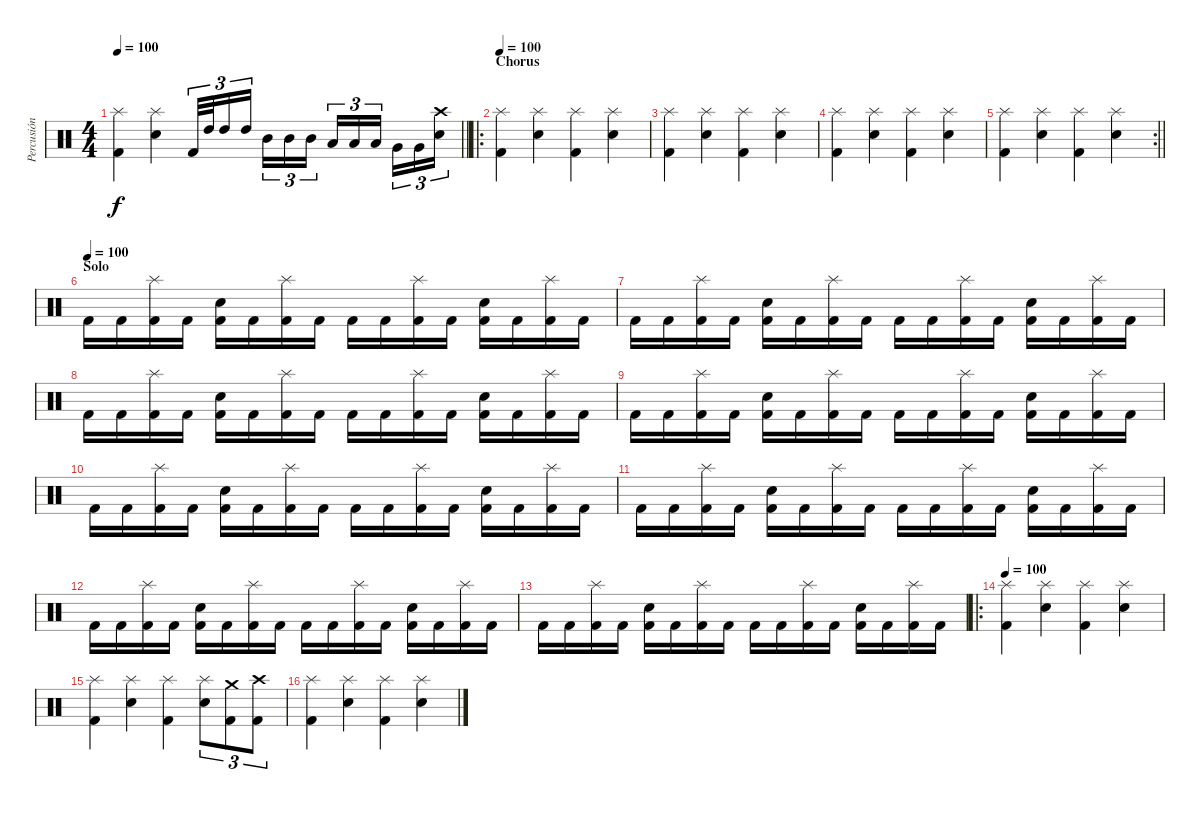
\track ("Percusión" "Percusión") {instrument percussion}
\staff {score}
\articulation defaults
\ts (4 4)
\tempo 100
\clef neutral
\barLineRight lightlight
\ks c
("Splash (hit)" "Kick (hit) 2").4{dy f} ("Splash (hit)" "Snare (hit) 2").4 "Kick (hit) 2".32{tu (3 2)} "High Tom (hit)".32{tu (3 2)} "High Tom (hit)".16{tu (3 2)} "High Tom (hit)".16{tu (3 2) beam splitsecondary} "Mid Tom (hit)".16{tu (3 2)} "Mid Tom (hit)".16{tu (3 2)} "Mid Tom (hit)".16{tu (3 2)} "Low Tom (hit)".16{tu (3 2)} "Low Tom (hit)".16{tu (3 2)} "Low Tom (hit)".16{tu (3 2) beam splitsecondary} "Very Low Tom (hit)".16{tu (3 2)} "Very Low Tom (hit)".16{tu (3 2)} ("Crash high (hit)" "Snare (hit) 2").16{tu (3 2)} |
\ro
\section ("" "Chorus")
\tempo 100
("Splash (hit)" "Kick (hit) 2").4 ("Splash (hit)" "Snare (hit) 2").4 ("Splash (hit)" "Kick (hit) 2").4 ("Splash (hit)" "Snare (hit) 2").4 |
("Splash (hit)" "Kick (hit) 2").4 ("Splash (hit)" "Snare (hit) 2").4 ("Splash (hit)" "Kick (hit) 2").4 ("Splash (hit)" "Snare (hit) 2").4 |
("Splash (hit)" "Kick (hit) 2").4 ("Splash (hit)" "Snare (hit) 2").4 ("Splash (hit)" "Kick (hit) 2").4 ("Splash (hit)" "Snare (hit) 2").4 |
\rc 2
\barLineRight lightlight
("Splash (hit)" "Kick (hit) 2").4 ("Splash (hit)" "Snare (hit) 2").4 ("Splash (hit)" "Kick (hit) 2").4 ("Splash (hit)" "Snare (hit) 2").4 |
\section ("" "Solo")
\tempo (100)
"Kick (hit) 2".16{volume 8} "Kick (hit) 2".16 ("Splash (hit)" "Kick (hit) 2").16 "Kick (hit) 2".16 ("Snare (hit) 2" "Kick (hit) 2").16 "Kick (hit) 2".16 ("Splash (hit)" "Kick (hit) 2").16 "Kick (hit) 2".16 "Kick (hit) 2".16 "Kick (hit) 2".16 ("Splash (hit)" "Kick (hit) 2").16 "Kick (hit) 2".16 ("Snare (hit) 2" "Kick (hit) 2").16 "Kick (hit) 2".16 ("Splash (hit)" "Kick (hit) 2").16 "Kick (hit) 2".16 |
"Kick (hit) 2".16 "Kick (hit) 2".16 ("Splash (hit)" "Kick (hit) 2").16 "Kick (hit) 2".16 ("Snare (hit) 2" "Kick (hit) 2").16 "Kick (hit) 2".16 ("Splash (hit)" "Kick (hit) 2").16 "Kick (hit) 2".16 "Kick (hit) 2".16 "Kick (hit) 2".16 ("Splash (hit)" "Kick (hit) 2").16 "Kick (hit) 2".16 ("Snare (hit) 2" "Kick (hit) 2").16 "Kick (hit) 2".16 ("Splash (hit)" "Kick (hit) 2").16 "Kick (hit) 2".16 |
"Kick (hit) 2".16 "Kick (hit) 2".16 ("Splash (hit)" "Kick (hit) 2").16 "Kick (hit) 2".16 ("Snare (hit) 2" "Kick (hit) 2").16 "Kick (hit) 2".16 ("Splash (hit)" "Kick (hit) 2").16 "Kick (hit) 2".16 "Kick (hit) 2".16 "Kick (hit) 2".16 ("Splash (hit)" "Kick (hit) 2").16 "Kick (hit) 2".16 ("Snare (hit) 2" "Kick (hit) 2").16 "Kick (hit) 2".16 ("Splash (hit)" "Kick (hit) 2").16 "Kick (hit) 2".16 |
"Kick (hit) 2".16 "Kick (hit) 2".16 ("Splash (hit)" "Kick (hit) 2").16 "Kick (hit) 2".16 ("Snare (hit) 2" "Kick (hit) 2").16 "Kick (hit) 2".16 ("Splash (hit)" "Kick (hit) 2").16 "Kick (hit) 2".16 "Kick (hit) 2".16 "Kick (hit) 2".16 ("Splash (hit)" "Kick (hit) 2").16 "Kick (hit) 2".16 ("Snare (hit) 2" "Kick (hit) 2").16 "Kick (hit) 2".16 ("Splash (hit)" "Kick (hit) 2").16 "Kick (hit) 2".16 |
"Kick (hit) 2".16 "Kick (hit) 2".16 ("Splash (hit)" "Kick (hit) 2").16 "Kick (hit) 2".16 ("Snare (hit) 2" "Kick (hit) 2").16 "Kick (hit) 2".16 ("Splash (hit)" "Kick (hit) 2").16 "Kick (hit) 2".16 "Kick (hit) 2".16 "Kick (hit) 2".16 ("Splash (hit)" "Kick (hit) 2").16 "Kick (hit) 2".16 ("Snare (hit) 2" "Kick (hit) 2").16 "Kick (hit) 2".16 ("Splash (hit)" "Kick (hit) 2").16 "Kick (hit) 2".16 |
"Kick (hit) 2".16 "Kick (hit) 2".16 ("Splash (hit)" "Kick (hit) 2").16 "Kick (hit) 2".16 ("Snare (hit) 2" "Kick (hit) 2").16 "Kick (hit) 2".16 ("Splash (hit)" "Kick (hit) 2").16 "Kick (hit) 2".16 "Kick (hit) 2".16 "Kick (hit) 2".16 ("Splash (hit)" "Kick (hit) 2").16 "Kick (hit) 2".16 ("Snare (hit) 2" "Kick (hit) 2").16 "Kick (hit) 2".16 ("Splash (hit)" "Kick (hit) 2").16 "Kick (hit) 2".16 |
"Kick (hit) 2".16 "Kick (hit) 2".16 ("Splash (hit)" "Kick (hit) 2").16 "Kick (hit) 2".16 ("Snare (hit) 2" "Kick (hit) 2").16 "Kick (hit) 2".16 ("Splash (hit)" "Kick (hit) 2").16 "Kick (hit) 2".16 "Kick (hit) 2".16 "Kick (hit) 2".16 ("Splash (hit)" "Kick (hit) 2").16 "Kick (hit) 2".16 ("Snare (hit) 2" "Kick (hit) 2").16 "Kick (hit) 2".16 ("Splash (hit)" "Kick (hit) 2").16 "Kick (hit) 2".16 |
"Kick (hit) 2".16 "Kick (hit) 2".16 ("Splash (hit)" "Kick (hit) 2").16 "Kick (hit) 2".16 ("Snare (hit) 2" "Kick (hit) 2").16 "Kick (hit) 2".16 ("Splash (hit)" "Kick (hit) 2").16 "Kick (hit) 2".16 "Kick (hit) 2".16 "Kick (hit) 2".16 ("Splash (hit)" "Kick (hit) 2").16 "Kick (hit) 2".16 ("Snare (hit) 2" "Kick (hit) 2").16 "Kick (hit) 2".16 ("Splash (hit)" "Kick (hit) 2").16 "Kick (hit) 2".16 |
\ro
\tempo 100
("Splash (hit)" "Kick (hit) 2").4 ("Splash (hit)" "Snare (hit) 2").4 ("Splash (hit)" "Kick (hit) 2").4 ("Splash (hit)" "Snare (hit) 2").4 |
("Splash (hit)" "Kick (hit) 2").4 ("Splash (hit)" "Snare (hit) 2").4 ("Splash (hit)" "Kick (hit) 2").4 ("Splash (hit)" "Snare (hit) 2").8{tu (3 2)} ("Crash medium (hit)" "Kick (hit) 2").8{tu (3 2)} ("Crash high (hit)" "Kick (hit) 2").8{tu (3 2)} |
("Splash (hit)" "Kick (hit) 2").4 ("Splash (hit)" "Snare (hit) 2").4 ("Splash (hit)" "Kick (hit) 2").4 ("Splash (hit)" "Snare (hit) 2").4
